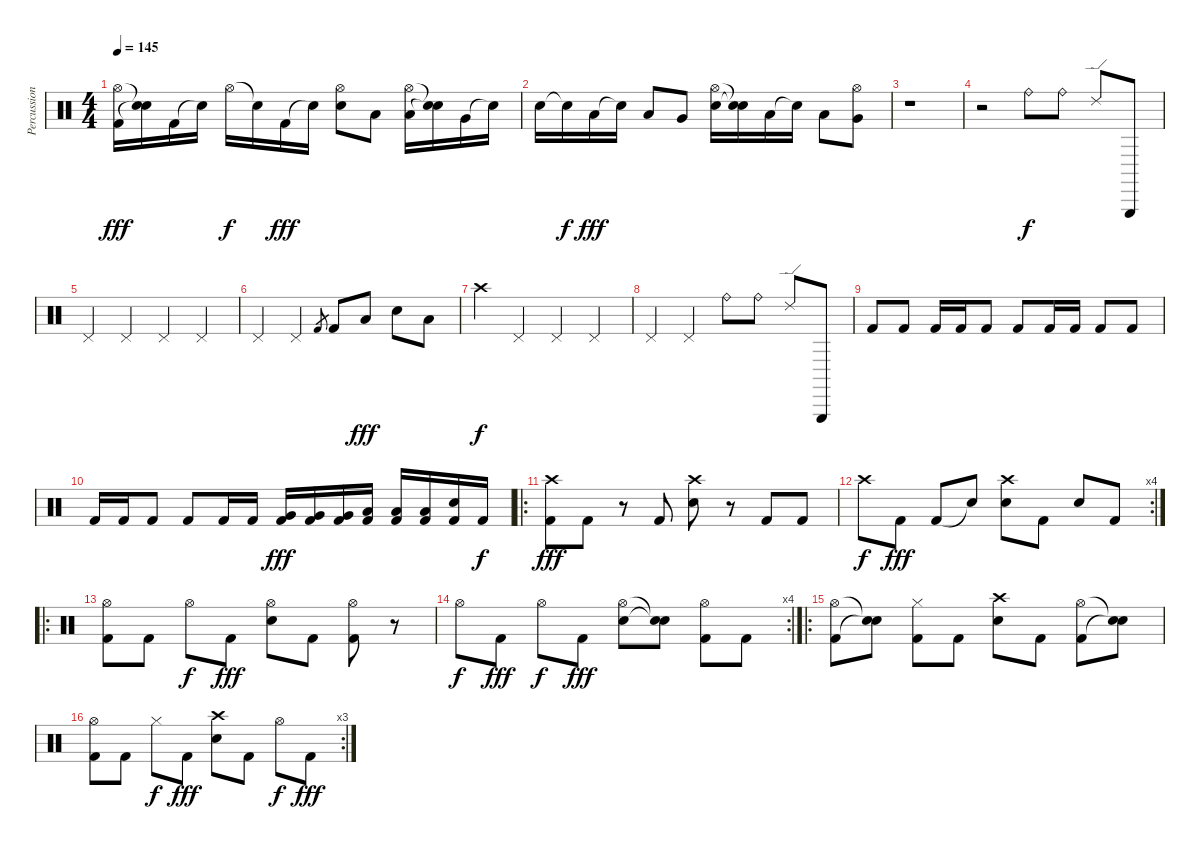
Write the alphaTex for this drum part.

\track ("Percussion" "Percussion") {instrument percussion}
\staff {score}
\articulation defaults
\ts (4 4)
\tempo 145
\clef neutral
\ks c
("Hi-Hat (open)" "Kick (hit) 2").16{dy fff} ("Snare (hit)"{t} "Snare (hit)"{t}).16 "Kick (hit) 2".16 "Snare (hit)"{t}.16 "Hi-Hat (open)".16{dy f} "Snare (hit)"{t}.16 "Kick (hit) 2".16{dy fff} "Snare (hit)"{t}.16 ("Hi-Hat (open)" "Electric Snare (hit)").8 "Low Tom (hit)".8 ("Hi-Hat (open)" "Low Floor Tom (hit)").16 ("Snare (hit)"{t} "Snare (hit)"{t}).16 "Very Low Tom (hit)".16 "Snare (hit)"{t}.16 |
"Electric Snare (hit)".16 "Snare (hit)"{t}.16{dy f} "Low Tom (hit)".16{dy fff} "Snare (hit)"{t}.16 "Low Floor Tom (hit)".8 "Very Low Tom (hit)".8 ("Hi-Hat (open)" "Electric Snare (hit)").16 ("Snare (hit)"{t} "Snare (hit)"{t}).16 "Low Tom (hit)".16 "Snare (hit)"{t}.16 "Low Floor Tom (hit)".8 ("Hi-Hat (open)" "Very Low Tom (hit)").8 |
r.1 |
r.2 "Ride (bell)".8{dy f} "Ride (bell)".8 "Ride (edge) 2".8 "Triangle (hit)".8 |
"Pedal Hi-Hat (hit)".4 "Pedal Hi-Hat (hit)".4 "Pedal Hi-Hat (hit)".4 "Pedal Hi-Hat (hit)".4 |
"Pedal Hi-Hat (hit)".4 "Pedal Hi-Hat (hit)".4 "Kick (hit) 2".8{gr} "Kick (hit) 2".8 "Low Floor Tom (hit)".8{dy fff} "Electric Snare (hit)".8 "Low Floor Tom (hit)".8 |
"Crash high (hit)".4{dy f} "Pedal Hi-Hat (hit)".4 "Pedal Hi-Hat (hit)".4 "Pedal Hi-Hat (hit)".4 |
"Pedal Hi-Hat (hit)".4 "Pedal Hi-Hat (hit)".4 "Ride (bell)".8 "Ride (bell)".8 "Ride (edge) 2".8 "Triangle (hit)".8 |
"Kick (hit) 2".8 "Kick (hit) 2".8 "Kick (hit) 2".16 "Kick (hit) 2".16 "Kick (hit) 2".8 "Kick (hit) 2".8 "Kick (hit) 2".16 "Kick (hit) 2".16 "Kick (hit) 2".8 "Kick (hit) 2".8 |
"Kick (hit) 2".16 "Kick (hit) 2".16 "Kick (hit) 2".8 "Kick (hit) 2".8 "Kick (hit) 2".16 "Kick (hit) 2".16 ("Kick (hit) 2" "Very Low Tom (hit)").16{dy fff} ("Kick (hit) 2" "Very Low Tom (hit)").16 ("Kick (hit) 2" "Very Low Tom (hit)").16 ("Kick (hit) 2" "Low Floor Tom (hit)").16 ("Kick (hit) 2" "Low Floor Tom (hit)").16 ("Kick (hit) 2" "Low Floor Tom (hit)").16 ("Kick (hit) 2" "Electric Snare (hit)").16 "Kick (hit) 2".16{dy f} |
\ro
("Crash high (hit)" "Kick (hit) 2").8{dy fff} "Kick (hit) 2".8 r.8 "Kick (hit) 2".8 ("Crash high (hit)" "Electric Snare (hit)").8 r.8 "Kick (hit) 2".8 "Kick (hit) 2".8 |
\rc 4 "Crash high (hit)".8{dy f} "Kick (hit) 2".8{dy fff} "Kick (hit) 2".8 "Snare (hit)"{t}.8
("Crash high (hit)" "Electric Snare (hit)").8 "Kick (hit) 2".8 "Electric Snare (hit)".8 "Kick (hit) 2".8 |
\ro
("Hi-Hat (open)" "Kick (hit) 2").8 "Kick (hit) 2".8 "Hi-Hat (open)".8{dy f} "Kick (hit) 2".8{dy fff} ("Hi-Hat (open)" "Electric Snare (hit)").8 "Kick (hit) 2".8 ("Hi-Hat (open)" "Kick (hit) 2").8 r.8 |
\rc 4 "Hi-Hat (open)".8{dy f} "Kick (hit) 2".8{dy fff} "Hi-Hat (open)".8{dy f} "Kick (hit) 2".8{dy fff}
("Hi-Hat (open)" "Electric Snare (hit)").8 ("Snare (hit)"{t} "Snare (hit)"{t}).8 ("Hi-Hat (open)" "Kick (hit) 2").8 "Kick (hit) 2".8 |
\ro
("Hi-Hat (open)" "Kick (hit) 2").8 ("Snare (hit)"{t} "Snare (hit)"{t}).8 ("Hi-Hat (closed)" "Kick (hit) 2").8 "Kick (hit) 2".8 ("Crash high (hit)" "Electric Snare (hit)").8 "Kick (hit) 2".8 ("Hi-Hat (open)" "Kick (hit) 2").8 ("Snare (hit)"{t} "Snare (hit)"{t}).8 |
\rc 3
("Hi-Hat (open)" "Kick (hit) 2").8 "Kick (hit) 2".8 "Hi-Hat (closed)".8{dy f} "Kick (hit) 2".8{dy fff} ("Crash high (hit)" "Electric Snare (hit)").8 "Kick (hit) 2".8 "Hi-Hat (open)".8{dy f} "Kick (hit) 2".8{dy fff}
